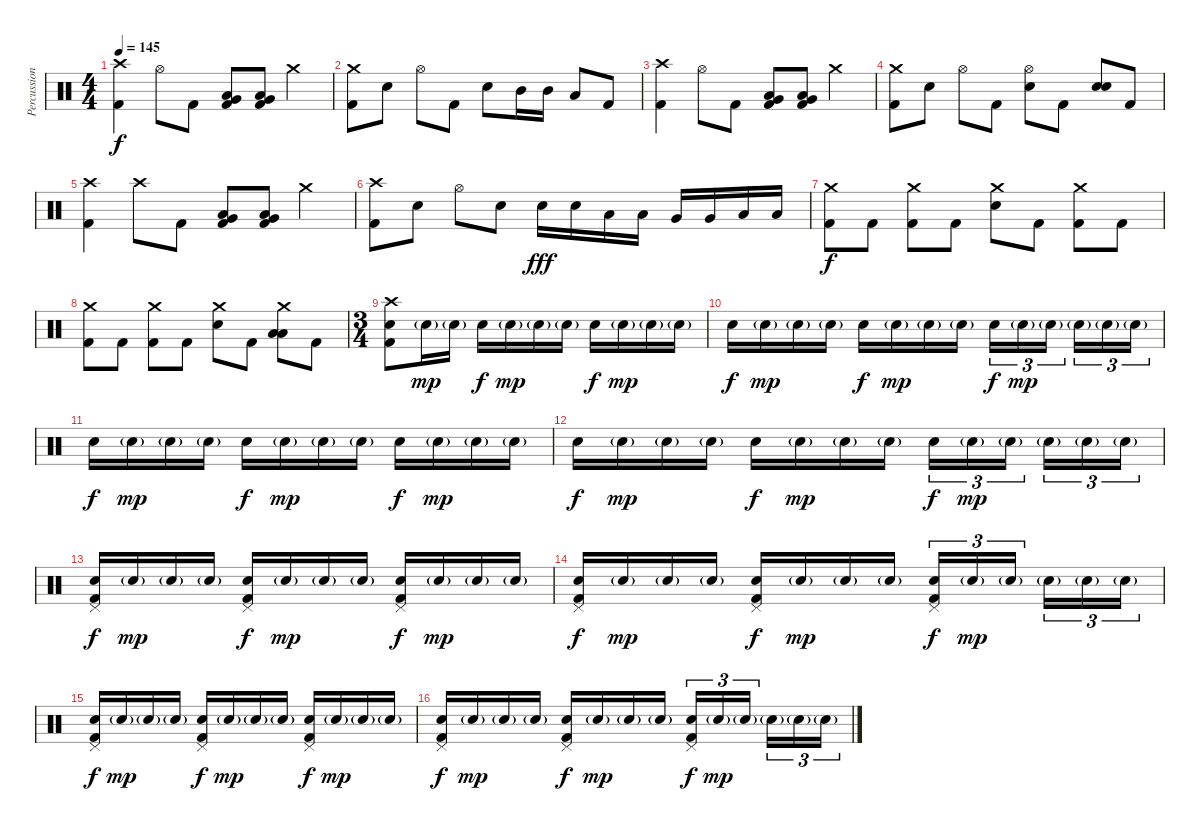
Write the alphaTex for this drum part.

\track ("Percussion" "Percussion") {instrument percussion}
\staff {score}
\articulation defaults
\ts (4 4)
\tempo 145
\clef neutral
\ks c
("Crash high (hit)" "Kick (hit) 2").4{dy f} "Hi-Hat (open)".8 "Kick (hit) 2".8 ("Very Low Tom (hit)" "Low Tom (hit)" "Kick (hit) 2").8 ("Very Low Tom (hit)" "Low Tom (hit)" "Kick (hit) 2").8 "Crash medium (hit)".4 |
("Crash medium (hit)" "Kick (hit) 2").8 "Electric Snare (hit)".8 "Hi-Hat (open)".8 "Kick (hit) 2".8 "Electric Snare (hit)".8 "Mid Tom (hit)".16 "Mid Tom (hit)".16 "Low Tom (hit)".8 "Kick (hit) 2".8 |
("Crash high (hit)" "Kick (hit) 2").4 "Hi-Hat (open)".8 "Kick (hit) 2".8 ("Very Low Tom (hit)" "Low Tom (hit)" "Kick (hit) 2").8 ("Very Low Tom (hit)" "Low Tom (hit)" "Kick (hit) 2").8 "Crash medium (hit)".4 |
("Crash medium (hit)" "Kick (hit) 2").8 "Electric Snare (hit)".8 "Hi-Hat (open)".8 "Kick (hit) 2".8 ("Hi-Hat (open)" "Electric Snare (hit)").8 "Kick (hit) 2".8 ("Electric Snare (hit)" "Electric Snare (hit)").8{bd 240} "Kick (hit) 2".8 |
("Crash high (hit)" "Kick (hit) 2").4 "Crash high (hit)".8 "Kick (hit) 2".8 ("Very Low Tom (hit)" "Low Tom (hit)" "Kick (hit) 2").8 ("Very Low Tom (hit)" "Low Tom (hit)" "Kick (hit) 2").8 "Crash medium (hit)".4 |
("Crash high (hit)" "Kick (hit) 2").8 "Electric Snare (hit)".8 "Hi-Hat (open)".8 "Electric Snare (hit)".8 "Electric Snare (hit)".16{dy fff} "Electric Snare (hit)".16 "Low Tom (hit)".16 "Low Tom (hit)".16 "Very Low Tom (hit)".16 "Very Low Tom (hit)".16 "Low Floor Tom (hit)".16 "Low Floor Tom (hit)".16 |
("Crash medium (hit)" "Kick (hit) 2").8{dy f} "Kick (hit) 2".8 ("Crash medium (hit)" "Kick (hit) 2").8 "Kick (hit) 2".8 ("Crash medium (hit)" "Electric Snare (hit)").8 "Kick (hit) 2".8 ("Crash medium (hit)" "Kick (hit) 2").8 "Kick (hit) 2".8 |
("Crash medium (hit)" "Kick (hit) 2").8 "Kick (hit) 2".8 ("Crash medium (hit)" "Kick (hit) 2").8 "Kick (hit) 2".8 ("Crash medium (hit)" "Electric Snare (hit)").8 "Kick (hit) 2".8 ("Crash medium (hit)" "Low Tom (hit)" "Low Tom (hit)").8 "Kick (hit) 2".8 |
\ts (3 4)
("Crash high (hit)" "Electric Snare (hit)" "Kick (hit) 2").8{volume 13} "Electric Snare (hit)"{g}.16{dy mp} "Electric Snare (hit)"{g}.16 "Electric Snare (hit)".16{dy f} "Electric Snare (hit)"{g}.16{dy mp} "Electric Snare (hit)"{g}.16 "Electric Snare (hit)"{g}.16 "Electric Snare (hit)".16{dy f} "Electric Snare (hit)"{g}.16{dy mp} "Electric Snare (hit)"{g}.16 "Electric Snare (hit)"{g}.16 |
"Electric Snare (hit)".16{dy f} "Electric Snare (hit)"{g}.16{dy mp} "Electric Snare (hit)"{g}.16 "Electric Snare (hit)"{g}.16 "Electric Snare (hit)".16{dy f} "Electric Snare (hit)"{g}.16{dy mp} "Electric Snare (hit)"{g}.16 "Electric Snare (hit)"{g}.16 "Electric Snare (hit)".16{tu (3 2) dy f} "Electric Snare (hit)"{g}.16{tu (3 2) dy mp} "Electric Snare (hit)"{g}.16{tu (3 2)} "Electric Snare (hit)"{g}.16{tu (3 2)} "Electric Snare (hit)"{g}.16{tu (3 2)} "Electric Snare (hit)"{g}.16{tu (3 2)} |
"Electric Snare (hit)".16{dy f} "Electric Snare (hit)"{g}.16{dy mp} "Electric Snare (hit)"{g}.16 "Electric Snare (hit)"{g}.16 "Electric Snare (hit)".16{dy f} "Electric Snare (hit)"{g}.16{dy mp} "Electric Snare (hit)"{g}.16 "Electric Snare (hit)"{g}.16 "Electric Snare (hit)".16{dy f} "Electric Snare (hit)"{g}.16{dy mp} "Electric Snare (hit)"{g}.16 "Electric Snare (hit)"{g}.16 |
"Electric Snare (hit)".16{dy f} "Electric Snare (hit)"{g}.16{dy mp} "Electric Snare (hit)"{g}.16 "Electric Snare (hit)"{g}.16 "Electric Snare (hit)".16{dy f} "Electric Snare (hit)"{g}.16{dy mp} "Electric Snare (hit)"{g}.16 "Electric Snare (hit)"{g}.16 "Electric Snare (hit)".16{tu (3 2) dy f} "Electric Snare (hit)"{g}.16{tu (3 2) dy mp} "Electric Snare (hit)"{g}.16{tu (3 2)} "Electric Snare (hit)"{g}.16{tu (3 2)} "Electric Snare (hit)"{g}.16{tu (3 2)} "Electric Snare (hit)"{g}.16{tu (3 2)} |
("Pedal Hi-Hat (hit)" "Electric Snare (hit)" "Kick (hit) 2").16{dy f} "Electric Snare (hit)"{g}.16{dy mp} "Electric Snare (hit)"{g}.16 "Electric Snare (hit)"{g}.16 ("Pedal Hi-Hat (hit)" "Electric Snare (hit)" "Kick (hit) 2").16{dy f} "Electric Snare (hit)"{g}.16{dy mp} "Electric Snare (hit)"{g}.16 "Electric Snare (hit)"{g}.16 ("Pedal Hi-Hat (hit)" "Electric Snare (hit)" "Kick (hit) 2").16{dy f} "Electric Snare (hit)"{g}.16{dy mp} "Electric Snare (hit)"{g}.16 "Electric Snare (hit)"{g}.16 |
("Pedal Hi-Hat (hit)" "Electric Snare (hit)" "Kick (hit) 2").16{dy f} "Electric Snare (hit)"{g}.16{dy mp} "Electric Snare (hit)"{g}.16 "Electric Snare (hit)"{g}.16 ("Pedal Hi-Hat (hit)" "Electric Snare (hit)" "Kick (hit) 2").16{dy f} "Electric Snare (hit)"{g}.16{dy mp} "Electric Snare (hit)"{g}.16 "Electric Snare (hit)"{g}.16 ("Pedal Hi-Hat (hit)" "Electric Snare (hit)" "Kick (hit) 2").16{tu (3 2) dy f} "Electric Snare (hit)"{g}.16{tu (3 2) dy mp} "Electric Snare (hit)"{g}.16{tu (3 2)} "Electric Snare (hit)"{g}.16{tu (3 2)} "Electric Snare (hit)"{g}.16{tu (3 2)} "Electric Snare (hit)"{g}.16{tu (3 2)} |
("Pedal Hi-Hat (hit)" "Electric Snare (hit)" "Kick (hit) 2").16{dy f} "Electric Snare (hit)"{g}.16{dy mp} "Electric Snare (hit)"{g}.16 "Electric Snare (hit)"{g}.16 ("Pedal Hi-Hat (hit)" "Electric Snare (hit)" "Kick (hit) 2").16{dy f} "Electric Snare (hit)"{g}.16{dy mp} "Electric Snare (hit)"{g}.16 "Electric Snare (hit)"{g}.16 ("Pedal Hi-Hat (hit)" "Electric Snare (hit)" "Kick (hit) 2").16{dy f} "Electric Snare (hit)"{g}.16{dy mp} "Electric Snare (hit)"{g}.16 "Electric Snare (hit)"{g}.16 |
("Pedal Hi-Hat (hit)" "Electric Snare (hit)" "Kick (hit) 2").16{dy f} "Electric Snare (hit)"{g}.16{dy mp} "Electric Snare (hit)"{g}.16 "Electric Snare (hit)"{g}.16 ("Pedal Hi-Hat (hit)" "Electric Snare (hit)" "Kick (hit) 2").16{dy f} "Electric Snare (hit)"{g}.16{dy mp} "Electric Snare (hit)"{g}.16 "Electric Snare (hit)"{g}.16 ("Pedal Hi-Hat (hit)" "Electric Snare (hit)" "Kick (hit) 2").16{tu (3 2) dy f} "Electric Snare (hit)"{g}.16{tu (3 2) dy mp} "Electric Snare (hit)"{g}.16{tu (3 2)} "Electric Snare (hit)"{g}.16{tu (3 2)} "Electric Snare (hit)"{g}.16{tu (3 2)} "Electric Snare (hit)"{g}.16{tu (3 2)}
